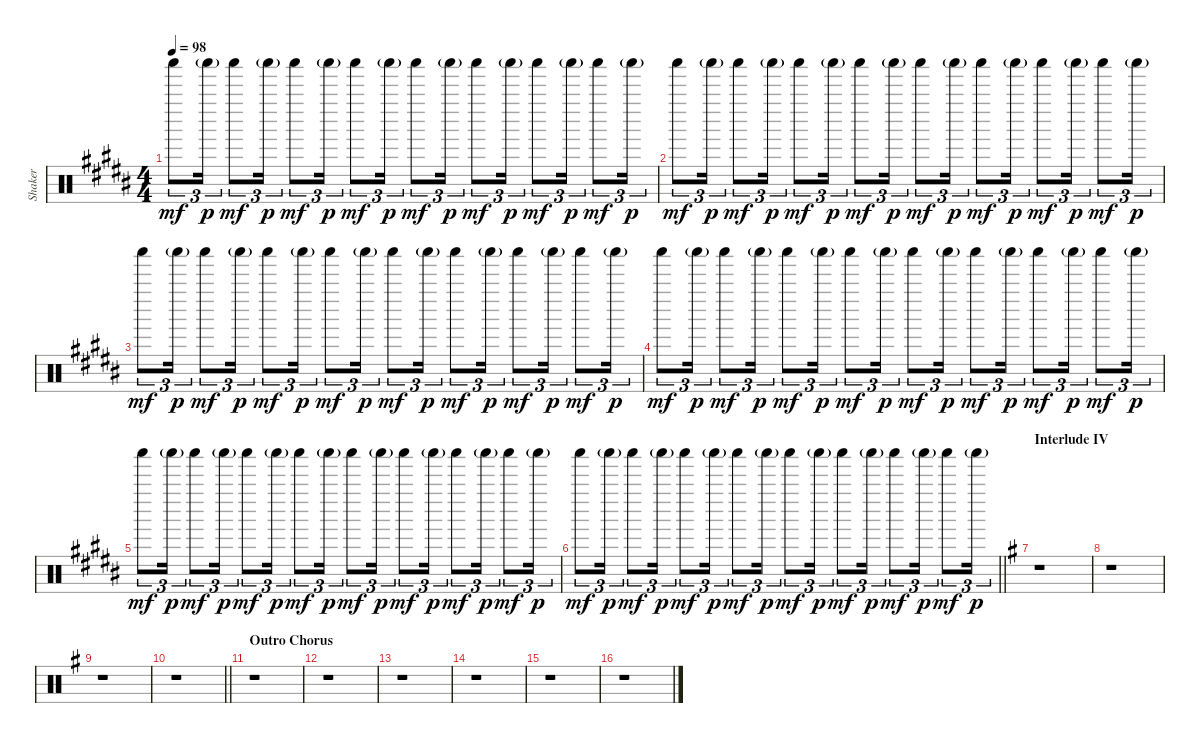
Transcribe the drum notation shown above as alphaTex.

\track ("Shaker" "Shaker") {instrument percussion}
\staff {score}
\articulation defaults
\ts (4 4)
\tempo 98
\clef neutral
\ks b "Shaker (hit)".8{tu (3 2) dy mf} "Shaker (hit)"{g}.16{tu (3 2) dy p} "Shaker (hit)".8{tu (3 2) dy mf} "Shaker (hit)"{g}.16{tu (3 2) dy p} "Shaker (hit)".8{tu (3 2) dy mf} "Shaker (hit)"{g}.16{tu (3 2) dy p} "Shaker (hit)".8{tu (3 2) dy mf} "Shaker (hit)"{g}.16{tu (3 2) dy p} "Shaker (hit)".8{tu (3 2) dy mf} "Shaker (hit)"{g}.16{tu (3 2) dy p} "Shaker (hit)".8{tu (3 2) dy mf} "Shaker (hit)"{g}.16{tu (3 2) dy p} "Shaker (hit)".8{tu (3 2) dy mf} "Shaker (hit)"{g}.16{tu (3 2) dy p} "Shaker (hit)".8{tu (3 2) dy mf} "Shaker (hit)"{g}.16{tu (3 2) dy p}
|
"Shaker (hit)".8{tu (3 2) dy mf} "Shaker (hit)"{g}.16{tu (3 2) dy p} "Shaker (hit)".8{tu (3 2) dy mf} "Shaker (hit)"{g}.16{tu (3 2) dy p} "Shaker (hit)".8{tu (3 2) dy mf} "Shaker (hit)"{g}.16{tu (3 2) dy p} "Shaker (hit)".8{tu (3 2) dy mf} "Shaker (hit)"{g}.16{tu (3 2) dy p} "Shaker (hit)".8{tu (3 2) dy mf} "Shaker (hit)"{g}.16{tu (3 2) dy p} "Shaker (hit)".8{tu (3 2) dy mf} "Shaker (hit)"{g}.16{tu (3 2) dy p} "Shaker (hit)".8{tu (3 2) dy mf} "Shaker (hit)"{g}.16{tu (3 2) dy p} "Shaker (hit)".8{tu (3 2) dy mf} "Shaker (hit)"{g}.16{tu (3 2) dy p} |
"Shaker (hit)".8{tu (3 2) dy mf} "Shaker (hit)"{g}.16{tu (3 2) dy p} "Shaker (hit)".8{tu (3 2) dy mf} "Shaker (hit)"{g}.16{tu (3 2) dy p} "Shaker (hit)".8{tu (3 2) dy mf} "Shaker (hit)"{g}.16{tu (3 2) dy p} "Shaker (hit)".8{tu (3 2) dy mf} "Shaker (hit)"{g}.16{tu (3 2) dy p} "Shaker (hit)".8{tu (3 2) dy mf} "Shaker (hit)"{g}.16{tu (3 2) dy p} "Shaker (hit)".8{tu (3 2) dy mf} "Shaker (hit)"{g}.16{tu (3 2) dy p} "Shaker (hit)".8{tu (3 2) dy mf} "Shaker (hit)"{g}.16{tu (3 2) dy p} "Shaker (hit)".8{tu (3 2) dy mf} "Shaker (hit)"{g}.16{tu (3 2) dy p} |
"Shaker (hit)".8{tu (3 2) dy mf} "Shaker (hit)"{g}.16{tu (3 2) dy p} "Shaker (hit)".8{tu (3 2) dy mf} "Shaker (hit)"{g}.16{tu (3 2) dy p} "Shaker (hit)".8{tu (3 2) dy mf} "Shaker (hit)"{g}.16{tu (3 2) dy p} "Shaker (hit)".8{tu (3 2) dy mf} "Shaker (hit)"{g}.16{tu (3 2) dy p} "Shaker (hit)".8{tu (3 2) dy mf} "Shaker (hit)"{g}.16{tu (3 2) dy p} "Shaker (hit)".8{tu (3 2) dy mf} "Shaker (hit)"{g}.16{tu (3 2) dy p} "Shaker (hit)".8{tu (3 2) dy mf} "Shaker (hit)"{g}.16{tu (3 2) dy p} "Shaker (hit)".8{tu (3 2) dy mf} "Shaker (hit)"{g}.16{tu (3 2) dy p} |
"Shaker (hit)".8{tu (3 2) dy mf} "Shaker (hit)"{g}.16{tu (3 2) dy p} "Shaker (hit)".8{tu (3 2) dy mf} "Shaker (hit)"{g}.16{tu (3 2) dy p} "Shaker (hit)".8{tu (3 2) dy mf} "Shaker (hit)"{g}.16{tu (3 2) dy p} "Shaker (hit)".8{tu (3 2) dy mf} "Shaker (hit)"{g}.16{tu (3 2) dy p} "Shaker (hit)".8{tu (3 2) dy mf} "Shaker (hit)"{g}.16{tu (3 2) dy p} "Shaker (hit)".8{tu (3 2) dy mf} "Shaker (hit)"{g}.16{tu (3 2) dy p} "Shaker (hit)".8{tu (3 2) dy mf} "Shaker (hit)"{g}.16{tu (3 2) dy p} "Shaker (hit)".8{tu (3 2) dy mf} "Shaker (hit)"{g}.16{tu (3 2) dy p} |
\barLineRight lightlight "Shaker (hit)".8{tu (3 2) dy mf} "Shaker (hit)"{g}.16{tu (3 2) dy p} "Shaker (hit)".8{tu (3 2) dy mf} "Shaker (hit)"{g}.16{tu (3 2) dy p} "Shaker (hit)".8{tu (3 2) dy mf} "Shaker (hit)"{g}.16{tu (3 2) dy p} "Shaker (hit)".8{tu (3 2) dy mf} "Shaker (hit)"{g}.16{tu (3 2) dy p} "Shaker (hit)".8{tu (3 2) dy mf} "Shaker (hit)"{g}.16{tu (3 2) dy p} "Shaker (hit)".8{tu (3 2) dy mf} "Shaker (hit)"{g}.16{tu (3 2) dy p} "Shaker (hit)".8{tu (3 2) dy mf} "Shaker (hit)"{g}.16{tu (3 2) dy p} "Shaker (hit)".8{tu (3 2) dy mf} "Shaker (hit)"{g}.16{tu (3 2) dy p}
|
\section ("" "Interlude IV")
\ks g
r.1 |
r.1 |
r.1 |
\barLineRight lightlight
r.1 |
\section ("" "Outro Chorus")
r.1 |
r.1 |
r.1 |
r.1 |
r.1 |
r.1
